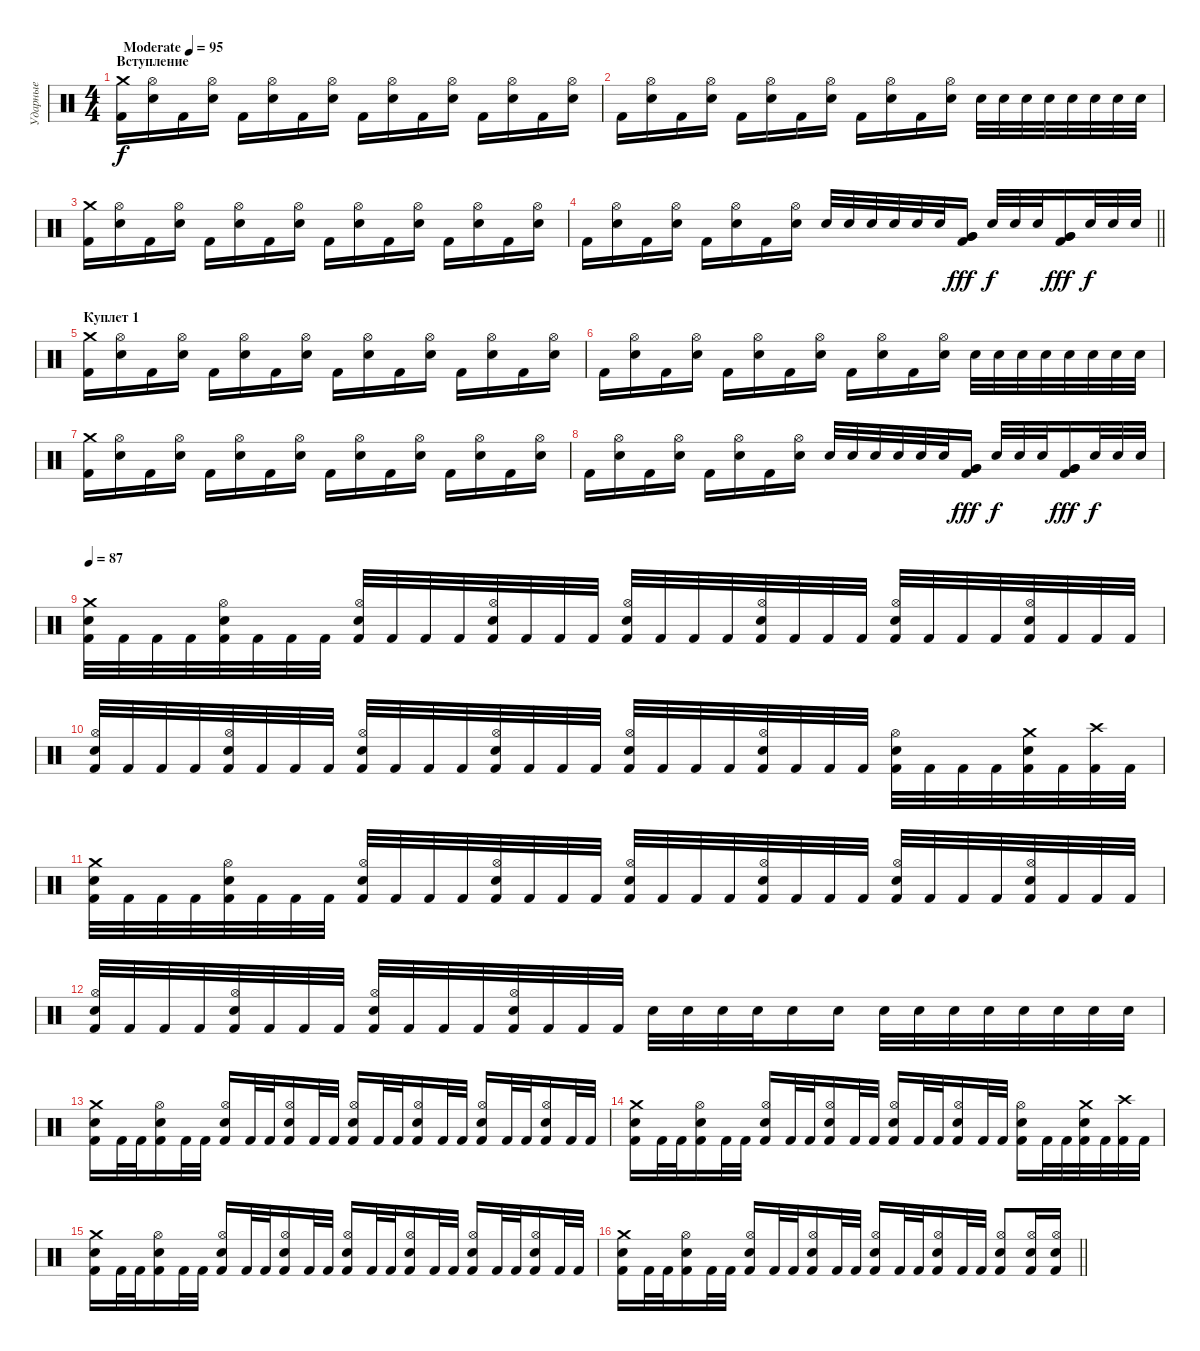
\track ("Ударные" "Ударные") {instrument percussion}
\staff {score}
\articulation defaults
\ts (4 4)
\section ("" "Вступление")
\tempo (95 "Moderate")
\clef neutral
\ks c
("Crash medium (hit)" "Kick (hit) 2").16{dy f} ("Hi-Hat (open)" "Electric Snare (hit)").16 "Kick (hit) 2".16 ("Hi-Hat (open)" "Electric Snare (hit)").16 "Kick (hit) 2".16 ("Hi-Hat (open)" "Electric Snare (hit)").16 "Kick (hit) 2".16 ("Hi-Hat (open)" "Electric Snare (hit)").16 "Kick (hit) 2".16 ("Hi-Hat (open)" "Electric Snare (hit)").16 "Kick (hit) 2".16 ("Hi-Hat (open)" "Electric Snare (hit)").16 "Kick (hit) 2".16 ("Hi-Hat (open)" "Electric Snare (hit)").16 "Kick (hit) 2".16 ("Hi-Hat (open)" "Electric Snare (hit)").16 |
"Kick (hit) 2".16 ("Hi-Hat (open)" "Electric Snare (hit)").16 "Kick (hit) 2".16 ("Hi-Hat (open)" "Electric Snare (hit)").16 "Kick (hit) 2".16 ("Hi-Hat (open)" "Electric Snare (hit)").16 "Kick (hit) 2".16 ("Hi-Hat (open)" "Electric Snare (hit)").16 "Kick (hit) 2".16 ("Hi-Hat (open)" "Electric Snare (hit)").16 "Kick (hit) 2".16 ("Hi-Hat (open)" "Electric Snare (hit)").16 "Electric Snare (hit)".32 "Electric Snare (hit)".32 "Electric Snare (hit)".32 "Electric Snare (hit)".32 "Electric Snare (hit)".32 "Electric Snare (hit)".32 "Electric Snare (hit)".32 "Electric Snare (hit)".32 |
("Crash medium (hit)" "Kick (hit) 2").16 ("Hi-Hat (open)" "Electric Snare (hit)").16 "Kick (hit) 2".16 ("Hi-Hat (open)" "Electric Snare (hit)").16 "Kick (hit) 2".16 ("Hi-Hat (open)" "Electric Snare (hit)").16 "Kick (hit) 2".16 ("Hi-Hat (open)" "Electric Snare (hit)").16 "Kick (hit) 2".16 ("Hi-Hat (open)" "Electric Snare (hit)").16 "Kick (hit) 2".16 ("Hi-Hat (open)" "Electric Snare (hit)").16 "Kick (hit) 2".16 ("Hi-Hat (open)" "Electric Snare (hit)").16 "Kick (hit) 2".16 ("Hi-Hat (open)" "Electric Snare (hit)").16 |
\barLineRight lightlight "Kick (hit) 2".16
("Hi-Hat (open)" "Electric Snare (hit)").16 "Kick (hit) 2".16 ("Hi-Hat (open)" "Electric Snare (hit)").16 "Kick (hit) 2".16 ("Hi-Hat (open)" "Electric Snare (hit)").16 "Kick (hit) 2".16 ("Hi-Hat (open)" "Electric Snare (hit)").16 "Electric Snare (hit)".32 "Electric Snare (hit)".32 "Electric Snare (hit)".32 "Electric Snare (hit)".32 "Electric Snare (hit)".32 "Electric Snare (hit)".32 ("Very Low Tom (hit)" "Very Low Tom (hit)" "Kick (hit) 2").16{dy fff} "Electric Snare (hit)".32{dy f} "Electric Snare (hit)".32 "Electric Snare (hit)".32 ("Very Low Tom (hit)" "Very Low Tom (hit)" "Kick (hit) 2").16{dy fff} "Electric Snare (hit)".32{dy f} "Electric Snare (hit)".32 "Electric Snare (hit)".32 |
\section ("" "Куплет 1")
("Crash medium (hit)" "Kick (hit) 2").16 ("Hi-Hat (open)" "Electric Snare (hit)").16 "Kick (hit) 2".16 ("Hi-Hat (open)" "Electric Snare (hit)").16 "Kick (hit) 2".16 ("Hi-Hat (open)" "Electric Snare (hit)").16 "Kick (hit) 2".16 ("Hi-Hat (open)" "Electric Snare (hit)").16 "Kick (hit) 2".16 ("Hi-Hat (open)" "Electric Snare (hit)").16 "Kick (hit) 2".16 ("Hi-Hat (open)" "Electric Snare (hit)").16 "Kick (hit) 2".16 ("Hi-Hat (open)" "Electric Snare (hit)").16 "Kick (hit) 2".16 ("Hi-Hat (open)" "Electric Snare (hit)").16 |
"Kick (hit) 2".16 ("Hi-Hat (open)" "Electric Snare (hit)").16 "Kick (hit) 2".16 ("Hi-Hat (open)" "Electric Snare (hit)").16 "Kick (hit) 2".16 ("Hi-Hat (open)" "Electric Snare (hit)").16 "Kick (hit) 2".16 ("Hi-Hat (open)" "Electric Snare (hit)").16 "Kick (hit) 2".16 ("Hi-Hat (open)" "Electric Snare (hit)").16 "Kick (hit) 2".16 ("Hi-Hat (open)" "Electric Snare (hit)").16 "Electric Snare (hit)".32 "Electric Snare (hit)".32 "Electric Snare (hit)".32 "Electric Snare (hit)".32 "Electric Snare (hit)".32 "Electric Snare (hit)".32 "Electric Snare (hit)".32 "Electric Snare (hit)".32 |
("Crash medium (hit)" "Kick (hit) 2").16 ("Hi-Hat (open)" "Electric Snare (hit)").16 "Kick (hit) 2".16 ("Hi-Hat (open)" "Electric Snare (hit)").16 "Kick (hit) 2".16 ("Hi-Hat (open)" "Electric Snare (hit)").16 "Kick (hit) 2".16 ("Hi-Hat (open)" "Electric Snare (hit)").16 "Kick (hit) 2".16 ("Hi-Hat (open)" "Electric Snare (hit)").16 "Kick (hit) 2".16 ("Hi-Hat (open)" "Electric Snare (hit)").16 "Kick (hit) 2".16 ("Hi-Hat (open)" "Electric Snare (hit)").16 "Kick (hit) 2".16 ("Hi-Hat (open)" "Electric Snare (hit)").16 |
"Kick (hit) 2".16 ("Hi-Hat (open)" "Electric Snare (hit)").16 "Kick (hit) 2".16 ("Hi-Hat (open)" "Electric Snare (hit)").16 "Kick (hit) 2".16 ("Hi-Hat (open)" "Electric Snare (hit)").16 "Kick (hit) 2".16 ("Hi-Hat (open)" "Electric Snare (hit)").16 "Electric Snare (hit)".32 "Electric Snare (hit)".32 "Electric Snare (hit)".32 "Electric Snare (hit)".32 "Electric Snare (hit)".32 "Electric Snare (hit)".32 ("Very Low Tom (hit)" "Very Low Tom (hit)" "Kick (hit) 2").16{dy fff} "Electric Snare (hit)".32{dy f} "Electric Snare (hit)".32 "Electric Snare (hit)".32 ("Very Low Tom (hit)" "Very Low Tom (hit)" "Kick (hit) 2").16{dy fff} "Electric Snare (hit)".32{dy f} "Electric Snare (hit)".32 "Electric Snare (hit)".32 |
\tempo 87
("Crash medium (hit)" "Electric Snare (hit)" "Kick (hit) 2").32 "Kick (hit) 2".32 "Kick (hit) 2".32 "Kick (hit) 2".32 ("Hi-Hat (open)" "Electric Snare (hit)" "Kick (hit) 2").32 "Kick (hit) 2".32 "Kick (hit) 2".32 "Kick (hit) 2".32 ("Hi-Hat (open)" "Electric Snare (hit)" "Kick (hit) 2").32 "Kick (hit) 2".32 "Kick (hit) 2".32 "Kick (hit) 2".32 ("Hi-Hat (open)" "Electric Snare (hit)" "Kick (hit) 2").32 "Kick (hit) 2".32 "Kick (hit) 2".32 "Kick (hit) 2".32 ("Hi-Hat (open)" "Electric Snare (hit)" "Kick (hit) 2").32 "Kick (hit) 2".32 "Kick (hit) 2".32 "Kick (hit) 2".32 ("Hi-Hat (open)" "Electric Snare (hit)" "Kick (hit) 2").32 "Kick (hit) 2".32 "Kick (hit) 2".32 "Kick (hit) 2".32 ("Hi-Hat (open)" "Electric Snare (hit)" "Kick (hit) 2").32 "Kick (hit) 2".32 "Kick (hit) 2".32 "Kick (hit) 2".32 ("Hi-Hat (open)" "Electric Snare (hit)" "Kick (hit) 2").32 "Kick (hit) 2".32 "Kick (hit) 2".32 "Kick (hit) 2".32 |
("Hi-Hat (open)" "Electric Snare (hit)" "Kick (hit) 2").32 "Kick (hit) 2".32 "Kick (hit) 2".32 "Kick (hit) 2".32 ("Hi-Hat (open)" "Electric Snare (hit)" "Kick (hit) 2").32 "Kick (hit) 2".32 "Kick (hit) 2".32 "Kick (hit) 2".32 ("Hi-Hat (open)" "Electric Snare (hit)" "Kick (hit) 2").32 "Kick (hit) 2".32 "Kick (hit) 2".32 "Kick (hit) 2".32 ("Hi-Hat (open)" "Electric Snare (hit)" "Kick (hit) 2").32 "Kick (hit) 2".32 "Kick (hit) 2".32 "Kick (hit) 2".32 ("Hi-Hat (open)" "Electric Snare (hit)" "Kick (hit) 2").32 "Kick (hit) 2".32 "Kick (hit) 2".32 "Kick (hit) 2".32 ("Hi-Hat (open)" "Electric Snare (hit)" "Kick (hit) 2").32 "Kick (hit) 2".32 "Kick (hit) 2".32 "Kick (hit) 2".32 ("Hi-Hat (open)" "Electric Snare (hit)" "Kick (hit) 2").32 "Kick (hit) 2".32 "Kick (hit) 2".32 "Kick (hit) 2".32 ("Crash medium (hit)" "Electric Snare (hit)" "Kick (hit) 2").32 "Kick (hit) 2".32 ("Crash high (hit)" "Kick (hit) 2").32 "Kick (hit) 2".32 |
("Crash medium (hit)" "Electric Snare (hit)" "Kick (hit) 2").32 "Kick (hit) 2".32 "Kick (hit) 2".32 "Kick (hit) 2".32 ("Hi-Hat (open)" "Electric Snare (hit)" "Kick (hit) 2").32 "Kick (hit) 2".32 "Kick (hit) 2".32 "Kick (hit) 2".32 ("Hi-Hat (open)" "Electric Snare (hit)" "Kick (hit) 2").32 "Kick (hit) 2".32 "Kick (hit) 2".32 "Kick (hit) 2".32 ("Hi-Hat (open)" "Electric Snare (hit)" "Kick (hit) 2").32 "Kick (hit) 2".32 "Kick (hit) 2".32 "Kick (hit) 2".32 ("Hi-Hat (open)" "Electric Snare (hit)" "Kick (hit) 2").32 "Kick (hit) 2".32 "Kick (hit) 2".32 "Kick (hit) 2".32 ("Hi-Hat (open)" "Electric Snare (hit)" "Kick (hit) 2").32 "Kick (hit) 2".32 "Kick (hit) 2".32 "Kick (hit) 2".32 ("Hi-Hat (open)" "Electric Snare (hit)" "Kick (hit) 2").32 "Kick (hit) 2".32 "Kick (hit) 2".32 "Kick (hit) 2".32 ("Hi-Hat (open)" "Electric Snare (hit)" "Kick (hit) 2").32 "Kick (hit) 2".32 "Kick (hit) 2".32 "Kick (hit) 2".32 |
("Hi-Hat (open)" "Electric Snare (hit)" "Kick (hit) 2").32 "Kick (hit) 2".32 "Kick (hit) 2".32 "Kick (hit) 2".32 ("Hi-Hat (open)" "Electric Snare (hit)" "Kick (hit) 2").32 "Kick (hit) 2".32 "Kick (hit) 2".32 "Kick (hit) 2".32 ("Hi-Hat (open)" "Electric Snare (hit)" "Kick (hit) 2").32 "Kick (hit) 2".32 "Kick (hit) 2".32 "Kick (hit) 2".32 ("Hi-Hat (open)" "Electric Snare (hit)" "Kick (hit) 2").32 "Kick (hit) 2".32 "Kick (hit) 2".32 "Kick (hit) 2".32 "Electric Snare (hit)".32 "Electric Snare (hit)".32 "Electric Snare (hit)".32 "Electric Snare (hit)".32 "Electric Snare (hit)".16 "Electric Snare (hit)".16 "Electric Snare (hit)".32 "Electric Snare (hit)".32 "Electric Snare (hit)".32 "Electric Snare (hit)".32 "Electric Snare (hit)".32 "Electric Snare (hit)".32 "Electric Snare (hit)".32 "Electric Snare (hit)".32 |
("Crash medium (hit)" "Electric Snare (hit)" "Kick (hit) 2").16 "Kick (hit) 2".32 "Kick (hit) 2".32 ("Hi-Hat (open)" "Electric Snare (hit)" "Kick (hit) 2").16 "Kick (hit) 2".32 "Kick (hit) 2".32 ("Hi-Hat (open)" "Electric Snare (hit)" "Kick (hit) 2").16 "Kick (hit) 2".32 "Kick (hit) 2".32 ("Hi-Hat (open)" "Electric Snare (hit)" "Kick (hit) 2").16 "Kick (hit) 2".32 "Kick (hit) 2".32 ("Hi-Hat (open)" "Electric Snare (hit)" "Kick (hit) 2").16 "Kick (hit) 2".32 "Kick (hit) 2".32 ("Hi-Hat (open)" "Electric Snare (hit)" "Kick (hit) 2").16 "Kick (hit) 2".32 "Kick (hit) 2".32 ("Hi-Hat (open)" "Electric Snare (hit)" "Kick (hit) 2").16 "Kick (hit) 2".32 "Kick (hit) 2".32 ("Hi-Hat (open)" "Electric Snare (hit)" "Kick (hit) 2").16 "Kick (hit) 2".32 "Kick (hit) 2".32 |
("Crash medium (hit)" "Electric Snare (hit)" "Kick (hit) 2").16 "Kick (hit) 2".32 "Kick (hit) 2".32 ("Hi-Hat (open)" "Electric Snare (hit)" "Kick (hit) 2").16 "Kick (hit) 2".32 "Kick (hit) 2".32 ("Hi-Hat (open)" "Electric Snare (hit)" "Kick (hit) 2").16 "Kick (hit) 2".32 "Kick (hit) 2".32 ("Hi-Hat (open)" "Electric Snare (hit)" "Kick (hit) 2").16 "Kick (hit) 2".32 "Kick (hit) 2".32 ("Hi-Hat (open)" "Electric Snare (hit)" "Kick (hit) 2").16 "Kick (hit) 2".32 "Kick (hit) 2".32 ("Hi-Hat (open)" "Electric Snare (hit)" "Kick (hit) 2").16 "Kick (hit) 2".32 "Kick (hit) 2".32 ("Hi-Hat (open)" "Electric Snare (hit)" "Kick (hit) 2").16 "Kick (hit) 2".32 "Kick (hit) 2".32 ("Crash medium (hit)" "Electric Snare (hit)" "Kick (hit) 2").32 "Kick (hit) 2".32 ("Crash high (hit)" "Kick (hit) 2").32 "Kick (hit) 2".32 |
("Crash medium (hit)" "Electric Snare (hit)" "Kick (hit) 2").16 "Kick (hit) 2".32 "Kick (hit) 2".32 ("Hi-Hat (open)" "Electric Snare (hit)" "Kick (hit) 2").16 "Kick (hit) 2".32 "Kick (hit) 2".32 ("Hi-Hat (open)" "Electric Snare (hit)" "Kick (hit) 2").16 "Kick (hit) 2".32 "Kick (hit) 2".32 ("Hi-Hat (open)" "Electric Snare (hit)" "Kick (hit) 2").16 "Kick (hit) 2".32 "Kick (hit) 2".32 ("Hi-Hat (open)" "Electric Snare (hit)" "Kick (hit) 2").16 "Kick (hit) 2".32 "Kick (hit) 2".32 ("Hi-Hat (open)" "Electric Snare (hit)" "Kick (hit) 2").16 "Kick (hit) 2".32 "Kick (hit) 2".32 ("Hi-Hat (open)" "Electric Snare (hit)" "Kick (hit) 2").16 "Kick (hit) 2".32 "Kick (hit) 2".32 ("Hi-Hat (open)" "Electric Snare (hit)" "Kick (hit) 2").16 "Kick (hit) 2".32 "Kick (hit) 2".32 |
\barLineRight lightlight
("Crash medium (hit)" "Electric Snare (hit)" "Kick (hit) 2").16 "Kick (hit) 2".32 "Kick (hit) 2".32 ("Hi-Hat (open)" "Electric Snare (hit)" "Kick (hit) 2").16 "Kick (hit) 2".32 "Kick (hit) 2".32 ("Hi-Hat (open)" "Electric Snare (hit)" "Kick (hit) 2").16 "Kick (hit) 2".32 "Kick (hit) 2".32 ("Hi-Hat (open)" "Electric Snare (hit)" "Kick (hit) 2").16 "Kick (hit) 2".32 "Kick (hit) 2".32 ("Hi-Hat (open)" "Electric Snare (hit)" "Kick (hit) 2").16 "Kick (hit) 2".32 "Kick (hit) 2".32 ("Hi-Hat (open)" "Electric Snare (hit)" "Kick (hit) 2").16 "Kick (hit) 2".32 "Kick (hit) 2".32 ("Hi-Hat (open)" "Electric Snare (hit)" "Kick (hit) 2").8 ("Hi-Hat (open)" "Electric Snare (hit)" "Kick (hit) 2").16 ("Hi-Hat (open)" "Electric Snare (hit)" "Kick (hit) 2").16
